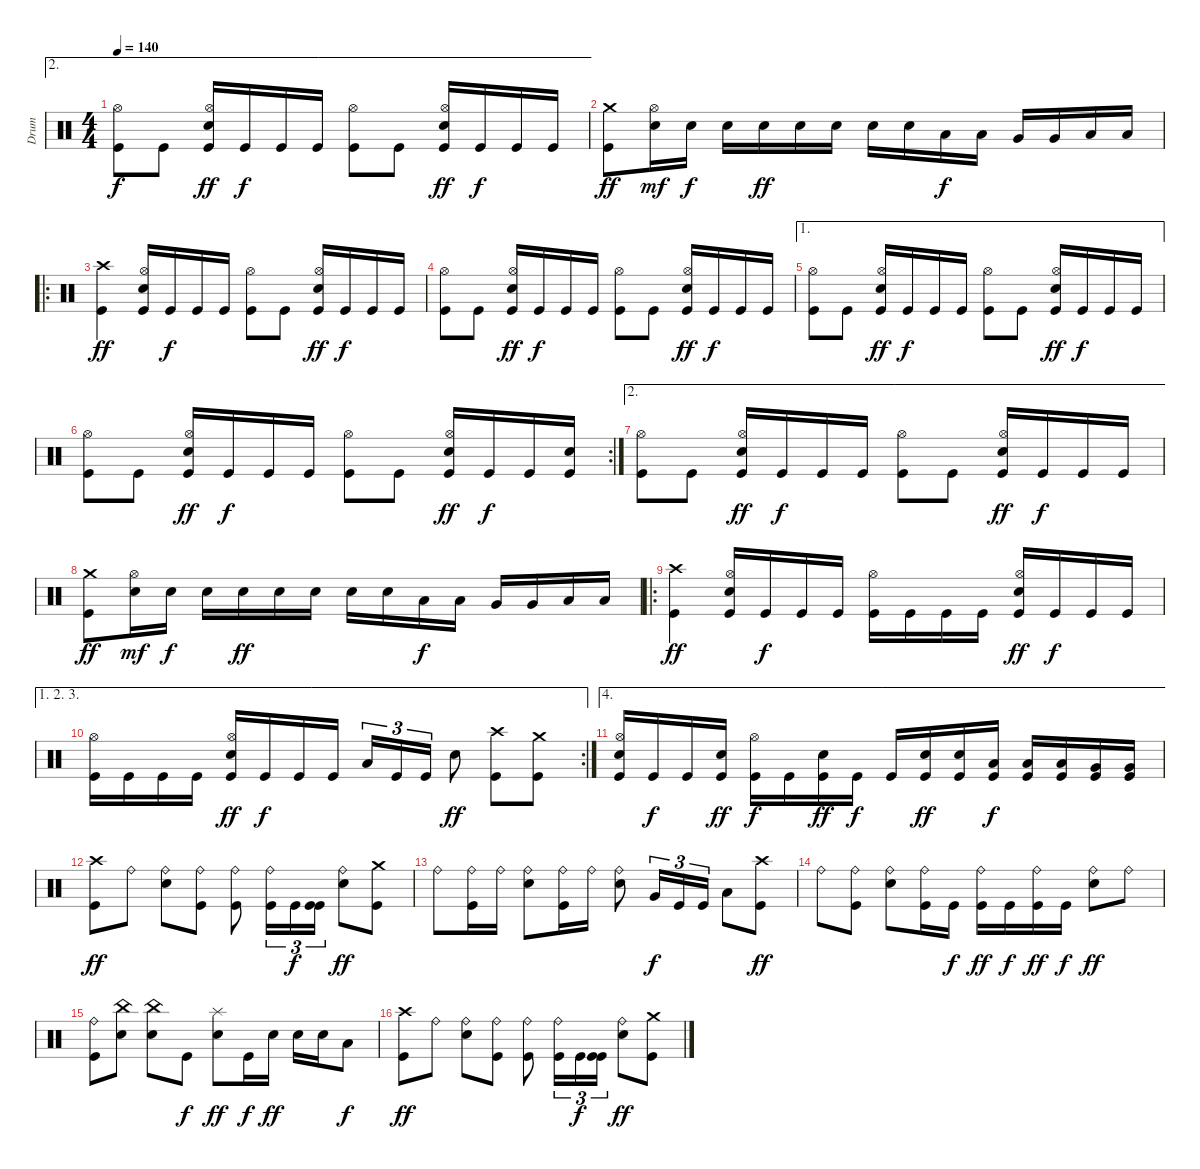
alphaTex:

\track ("Drum" "Drum") {instrument percussion}
\staff {score}
\articulation defaults
\ae 2
\ts (4 4)
\tempo 140
\clef neutral
\ks c
("Kick (hit)" "Hi-Hat (open)").8{dy f} "Kick (hit)".8 ("Kick (hit)" "Electric Snare (hit)" "Hi-Hat (open)").16{dy ff} "Kick (hit)".16{dy f} "Kick (hit)".16 "Kick (hit)".16 ("Kick (hit)" "Hi-Hat (open)").8 "Kick (hit)".8 ("Kick (hit)" "Electric Snare (hit)" "Hi-Hat (open)").16{dy ff} "Kick (hit)".16{dy f} "Kick (hit)".16 "Kick (hit)".16 |
("Kick (hit)" "Crash medium (hit)").8{dy ff} ("Electric Snare (hit)" "Hi-Hat (open)").16{dy mf} "Electric Snare (hit)".16{dy f} "Electric Snare (hit)".16 "Electric Snare (hit)".16{dy ff} "Electric Snare (hit)".16 "Electric Snare (hit)".16 "Electric Snare (hit)".16 "Electric Snare (hit)".16 "Low Tom (hit)".16{dy f} "Low Tom (hit)".16 "Very Low Tom (hit)".16 "Very Low Tom (hit)".16 "Low Floor Tom (hit)".16 "Low Floor Tom (hit)".16 |
\ro
("Kick (hit)" "Crash high (hit)").4{dy ff} ("Kick (hit)" "Electric Snare (hit)" "Hi-Hat (open)").16 "Kick (hit)".16{dy f} "Kick (hit)".16 "Kick (hit)".16 ("Kick (hit)" "Hi-Hat (open)").8 "Kick (hit)".8 ("Kick (hit)" "Electric Snare (hit)" "Hi-Hat (open)").16{dy ff} "Kick (hit)".16{dy f} "Kick (hit)".16 "Kick (hit)".16 |
("Kick (hit)" "Hi-Hat (open)").8 "Kick (hit)".8 ("Kick (hit)" "Electric Snare (hit)" "Hi-Hat (open)").16{dy ff} "Kick (hit)".16{dy f} "Kick (hit)".16 "Kick (hit)".16 ("Kick (hit)" "Hi-Hat (open)").8 "Kick (hit)".8 ("Kick (hit)" "Electric Snare (hit)" "Hi-Hat (open)").16{dy ff} "Kick (hit)".16{dy f} "Kick (hit)".16 "Kick (hit)".16 |
\ae 1
("Kick (hit)" "Hi-Hat (open)").8 "Kick (hit)".8 ("Kick (hit)" "Electric Snare (hit)" "Hi-Hat (open)").16{dy ff} "Kick (hit)".16{dy f} "Kick (hit)".16 "Kick (hit)".16 ("Kick (hit)" "Hi-Hat (open)").8 "Kick (hit)".8 ("Kick (hit)" "Electric Snare (hit)" "Hi-Hat (open)").16{dy ff} "Kick (hit)".16{dy f} "Kick (hit)".16 "Kick (hit)".16 |
\rc 2
("Kick (hit)" "Hi-Hat (open)").8 "Kick (hit)".8 ("Kick (hit)" "Electric Snare (hit)" "Hi-Hat (open)").16{dy ff} "Kick (hit)".16{dy f} "Kick (hit)".16 "Kick (hit)".16 ("Kick (hit)" "Hi-Hat (open)").8 "Kick (hit)".8 ("Kick (hit)" "Electric Snare (hit)" "Hi-Hat (open)").16{dy ff} "Kick (hit)".16{dy f} "Kick (hit)".16 ("Kick (hit)" "Electric Snare (hit)").16 |
\ae 2
("Kick (hit)" "Hi-Hat (open)").8 "Kick (hit)".8 ("Kick (hit)" "Electric Snare (hit)" "Hi-Hat (open)").16{dy ff} "Kick (hit)".16{dy f} "Kick (hit)".16 "Kick (hit)".16 ("Kick (hit)" "Hi-Hat (open)").8 "Kick (hit)".8 ("Kick (hit)" "Electric Snare (hit)" "Hi-Hat (open)").16{dy ff} "Kick (hit)".16{dy f} "Kick (hit)".16 "Kick (hit)".16 |
("Kick (hit)" "Crash medium (hit)").8{dy ff} ("Electric Snare (hit)" "Hi-Hat (open)").16{dy mf} "Electric Snare (hit)".16{dy f} "Electric Snare (hit)".16 "Electric Snare (hit)".16{dy ff} "Electric Snare (hit)".16 "Electric Snare (hit)".16 "Electric Snare (hit)".16 "Electric Snare (hit)".16 "Low Tom (hit)".16{dy f} "Low Tom (hit)".16 "Very Low Tom (hit)".16 "Very Low Tom (hit)".16 "Low Floor Tom (hit)".16 "Low Floor Tom (hit)".16 |
\ro
("Kick (hit)" "Crash high (hit)").4{dy ff} ("Kick (hit)" "Electric Snare (hit)" "Hi-Hat (open)").16 "Kick (hit)".16{dy f} "Kick (hit)".16 "Kick (hit)".16 ("Kick (hit)" "Hi-Hat (open)").16 "Kick (hit)".16 "Kick (hit)".16 "Kick (hit)".16 ("Kick (hit)" "Electric Snare (hit)" "Hi-Hat (open)").16{dy ff} "Kick (hit)".16{dy f} "Kick (hit)".16 "Kick (hit)".16 |
\ae (1 2 3)
\rc 2
("Kick (hit)" "Hi-Hat (open)").16 "Kick (hit)".16 "Kick (hit)".16 "Kick (hit)".16 ("Kick (hit)" "Electric Snare (hit)" "Hi-Hat (open)").16{dy ff} "Kick (hit)".16{dy f} "Kick (hit)".16 "Kick (hit)".16 "Low Floor Tom (hit)".16{tu (3 2)} "Kick (hit)".16{tu (3 2)} "Kick (hit)".16{tu (3 2)} "Electric Snare (hit)".8{dy ff} ("Kick (hit)" "Crash high (hit)").8 ("Kick (hit)" "Crash medium (hit)").8 |
\ae 4
("Kick (hit)" "Electric Snare (hit)" "Hi-Hat (open)").16 "Kick (hit)".16{dy f} "Kick (hit)".16 ("Kick (hit)" "Electric Snare (hit)").16{dy ff} ("Kick (hit)" "Hi-Hat (open)").16{dy f} "Kick (hit)".16 ("Kick (hit)" "Electric Snare (hit)").16{dy ff} "Kick (hit)".16{dy f} "Kick (hit)".16 ("Kick (hit)" "Electric Snare (hit)").16{dy ff} ("Kick (hit)" "Electric Snare (hit)").16 ("Kick (hit)" "Low Tom (hit)").16{dy f} ("Kick (hit)" "Low Tom (hit)").16 ("Kick (hit)" "Low Tom (hit)").16 ("Kick (hit)" "Very Low Tom (hit)").16 ("Kick (hit)" "Very Low Tom (hit)").16 |
("Kick (hit)" "Crash high (hit)").8{dy ff} "Ride (bell)".8 ("Electric Snare (hit)" "Ride (bell)").8 ("Kick (hit)" "Ride (bell)").8 ("Kick (hit)" "Ride (bell)").8 ("Kick (hit)" "Ride (bell)").16{tu (3 2)} "Kick (hit)".16{tu (3 2) dy f} ("Kick (hit)" "Kick (hit)").16{tu (3 2)} ("Electric Snare (hit)" "Ride (bell)").8{dy ff} ("Kick (hit)" "Crash medium (hit)").8 |
"Ride (bell)".8 ("Kick (hit)" "Ride (bell)").16 "Ride (bell)".16 ("Electric Snare (hit)" "Ride (bell)").8 ("Kick (hit)" "Ride (bell)").16 "Ride (bell)".16 ("Electric Snare (hit)" "Ride (bell)").8 "Very Low Tom (hit)".16{tu (3 2) dy f} "Kick (hit)".16{tu (3 2)} "Kick (hit)".16{tu (3 2)} "Low Floor Tom (hit)".8 ("Kick (hit)" "Crash high (hit)").8{dy ff} |
"Ride (bell)".8 ("Kick (hit)" "Ride (bell)").8 ("Electric Snare (hit)" "Ride (bell)").8 ("Kick (hit)" "Ride (bell)").16 "Kick (hit)".16{dy f} ("Kick (hit)" "Ride (bell)").16{dy ff} "Kick (hit)".16{dy f} ("Kick (hit)" "Ride (bell)").16{dy ff} "Kick (hit)".16{dy f} ("Electric Snare (hit)" "Ride (bell)").8{dy ff} "Ride (bell)".8 |
("Kick (hit)" "Ride (bell)").8 ("Electric Snare (hit)" "China (hit)").8 ("Electric Snare (hit)" "China (hit)").8 "Kick (hit)".8{dy f} ("Electric Snare (hit)" "Splash (hit)").8{dy ff} "Kick (hit)".16{dy f} "Electric Snare (hit)".16{dy ff} "Electric Snare (hit)".16 "Electric Snare (hit)".16 "Low Tom (hit)".8{dy f} |
("Kick (hit)" "Crash high (hit)").8{dy ff} "Ride (bell)".8 ("Electric Snare (hit)" "Ride (bell)").8 ("Kick (hit)" "Ride (bell)").8 ("Kick (hit)" "Ride (bell)").8 ("Kick (hit)" "Ride (bell)").16{tu (3 2)} "Kick (hit)".16{tu (3 2) dy f} ("Kick (hit)" "Kick (hit)").16{tu (3 2)} ("Electric Snare (hit)" "Ride (bell)").8{dy ff} ("Kick (hit)" "Crash medium (hit)").8
